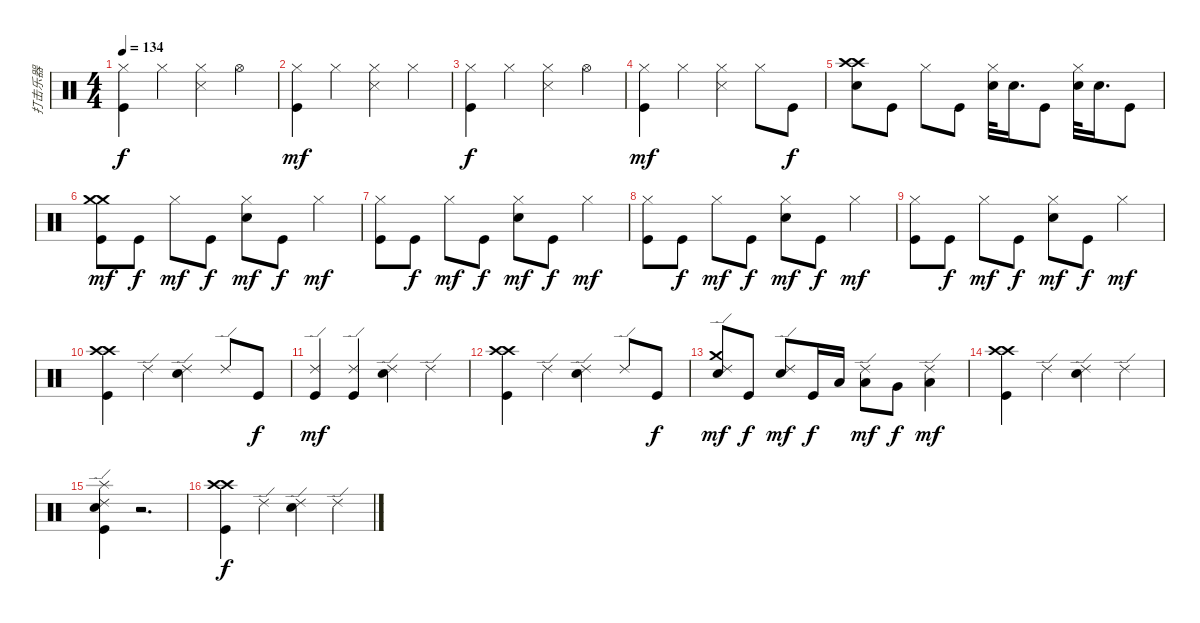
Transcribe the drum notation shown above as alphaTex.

\track ("打击乐器" "打击乐器") {instrument percussion}
\staff {score}
\articulation defaults
\ts (4 4)
\tempo 134
\clef neutral
\ks c
("Hi-Hat (closed)" "Kick (hit)").4{dy f} "Hi-Hat (closed)".4 ("Hi-Hat (closed)" "Snare (side stick) 3").4 "Hi-Hat (open)".4 |
("Hi-Hat (closed)" "Kick (hit)").4{dy mf} "Hi-Hat (closed)".4 ("Hi-Hat (closed)" "Snare (side stick) 3").4 "Hi-Hat (closed)".4 |
("Hi-Hat (closed)" "Kick (hit)").4{dy f} "Hi-Hat (closed)".4 ("Hi-Hat (closed)" "Snare (side stick) 3").4 "Hi-Hat (open)".4 |
("Hi-Hat (closed)" "Kick (hit)").4{dy mf} "Hi-Hat (closed)".4 ("Hi-Hat (closed)" "Snare (side stick) 3").4 "Hi-Hat (closed)".8 "Kick (hit)".8{dy f} |
("Crash high (hit)" "Crash high (hit)" "Electric Snare (hit)").8 "Kick (hit)".8 "Hi-Hat (closed)".8 "Kick (hit)".8 ("Hi-Hat (closed)" "Electric Snare (hit)").32 "Electric Snare (hit)".16{d} "Kick (hit)".8 ("Hi-Hat (closed)" "Electric Snare (hit)").32 "Electric Snare (hit)".16{d} "Kick (hit)".8 |
("Crash medium (hit)" "Crash medium (hit)" "Kick (hit)").8{dy mf} "Kick (hit)".8{dy f} "Hi-Hat (closed)".8{dy mf} "Kick (hit)".8{dy f} ("Hi-Hat (closed)" "Electric Snare (hit)").8{dy mf} "Kick (hit)".8{dy f} "Hi-Hat (closed)".4{dy mf} |
("Hi-Hat (closed)" "Kick (hit)").8 "Kick (hit)".8{dy f} "Hi-Hat (closed)".8{dy mf} "Kick (hit)".8{dy f} ("Hi-Hat (closed)" "Electric Snare (hit)").8{dy mf} "Kick (hit)".8{dy f} "Hi-Hat (closed)".4{dy mf} |
("Hi-Hat (closed)" "Kick (hit)").8 "Kick (hit)".8{dy f} "Hi-Hat (closed)".8{dy mf} "Kick (hit)".8{dy f} ("Hi-Hat (closed)" "Electric Snare (hit)").8{dy mf} "Kick (hit)".8{dy f} "Hi-Hat (closed)".4{dy mf} |
("Hi-Hat (closed)" "Kick (hit)").8 "Kick (hit)".8{dy f} "Hi-Hat (closed)".8{dy mf} "Kick (hit)".8{dy f} ("Hi-Hat (closed)" "Electric Snare (hit)").8{dy mf} "Kick (hit)".8{dy f} "Hi-Hat (closed)".4{dy mf} |
("Crash high (hit)" "Crash high (hit)" "Kick (hit)").4 "Ride (edge) 2".4 ("Ride (edge) 2" "Electric Snare (hit)").4 "Ride (edge) 2".8 "Kick (hit)".8{dy f} |
("Ride (edge) 2" "Kick (hit)").4{dy mf} ("Ride (edge) 2" "Kick (hit)").4 ("Ride (edge) 2" "Electric Snare (hit)").4 "Ride (edge) 2".4 |
("Crash high (hit)" "Crash high (hit)" "Kick (hit)").4 "Ride (edge) 2".4 ("Ride (edge) 2" "Electric Snare (hit)").4 "Ride (edge) 2".8 "Kick (hit)".8{dy f} |
("Ride (edge) 2" "Crash medium (hit)" "Electric Snare (hit)").8{dy mf} "Kick (hit)".8{dy f} ("Ride (edge) 2" "Electric Snare (hit)").8{dy mf} "Kick (hit)".16{dy f} "Low Tom (hit)".16 ("Ride (edge) 2" "Low Tom (hit)").8{dy mf} "Very Low Tom (hit)".8{dy f} ("Ride (edge) 2" "Low Floor Tom (hit)").4{dy mf} |
("Crash high (hit)" "Crash high (hit)" "Kick (hit)").4 "Ride (edge) 2".4 ("Ride (edge) 2" "Electric Snare (hit)").4 "Ride (edge) 2".4 |
("Ride (edge) 2" "Splash (hit)" "Electric Snare (hit)" "Kick (hit)").4 r.2{d} |
("Crash high (hit)" "Crash high (hit)" "Kick (hit)").4{dy f} "Ride (edge) 2".4 ("Ride (edge) 2" "Electric Snare (hit)").4 "Ride (edge) 2".4
